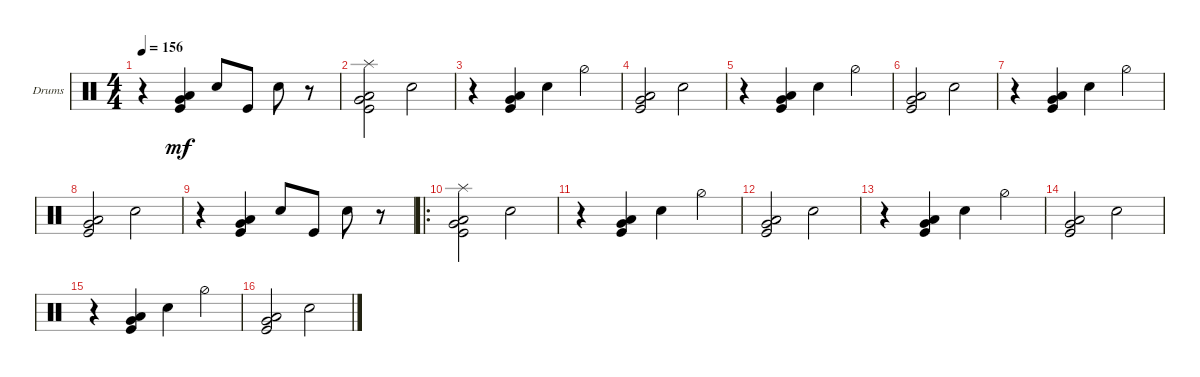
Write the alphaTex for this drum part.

\defaultSystemsLayout 4
\bracketExtendMode groupsimilarinstruments
\firstSystemTrackNameOrientation horizontal
\otherSystemsTrackNameOrientation horizontal
\track ("Drumkit" "Drums") {instrument percussion}
\staff {score}
\articulation defaults
\ts (4 4)
\tempo 156
\clef neutral
\ks c
r.4{dy mf} ("Low Tom (hit)" "Kick (hit)" "Very Low Tom (hit)").4 "Snare (hit) 2".8 "Kick (hit)".8 "Snare (hit) 2".8 r.8 |
("Low Tom (hit)" "Kick (hit)" "Very Low Tom (hit)" "Splash (hit)").2 "Snare (hit) 2".2 |
r.4 ("Low Tom (hit)" "Kick (hit)" "Very Low Tom (hit)").4 "Snare (hit) 2".4 "Hi-Hat (half)".4 |
("Low Tom (hit)" "Kick (hit)" "Very Low Tom (hit)").2 "Snare (hit) 2".2 |
r.4 ("Low Tom (hit)" "Kick (hit)" "Very Low Tom (hit)").4 "Snare (hit) 2".4 "Hi-Hat (half)".4 |
("Low Tom (hit)" "Kick (hit)" "Very Low Tom (hit)").2 "Snare (hit) 2".2 |
r.4 ("Low Tom (hit)" "Kick (hit)" "Very Low Tom (hit)").4 "Snare (hit) 2".4 "Hi-Hat (half)".4 |
("Low Tom (hit)" "Kick (hit)" "Very Low Tom (hit)").2 "Snare (hit) 2".2 |
r.4 ("Low Tom (hit)" "Kick (hit)" "Very Low Tom (hit)").4 "Snare (hit) 2".8 "Kick (hit)".8 "Snare (hit) 2".8 r.8 |
\ro
("Low Tom (hit)" "Kick (hit)" "Very Low Tom (hit)" "Splash (hit)").2 "Snare (hit) 2".2 |
r.4 ("Low Tom (hit)" "Kick (hit)" "Very Low Tom (hit)").4 "Snare (hit) 2".4 "Hi-Hat (half)".4 |
("Low Tom (hit)" "Kick (hit)" "Very Low Tom (hit)").2 "Snare (hit) 2".2 |
r.4 ("Low Tom (hit)" "Kick (hit)" "Very Low Tom (hit)").4 "Snare (hit) 2".4 "Hi-Hat (half)".4 |
("Low Tom (hit)" "Kick (hit)" "Very Low Tom (hit)").2 "Snare (hit) 2".2 |
r.4 ("Low Tom (hit)" "Kick (hit)" "Very Low Tom (hit)").4 "Snare (hit) 2".4 "Hi-Hat (half)".4 |
("Low Tom (hit)" "Kick (hit)" "Very Low Tom (hit)").2 "Snare (hit) 2".2
